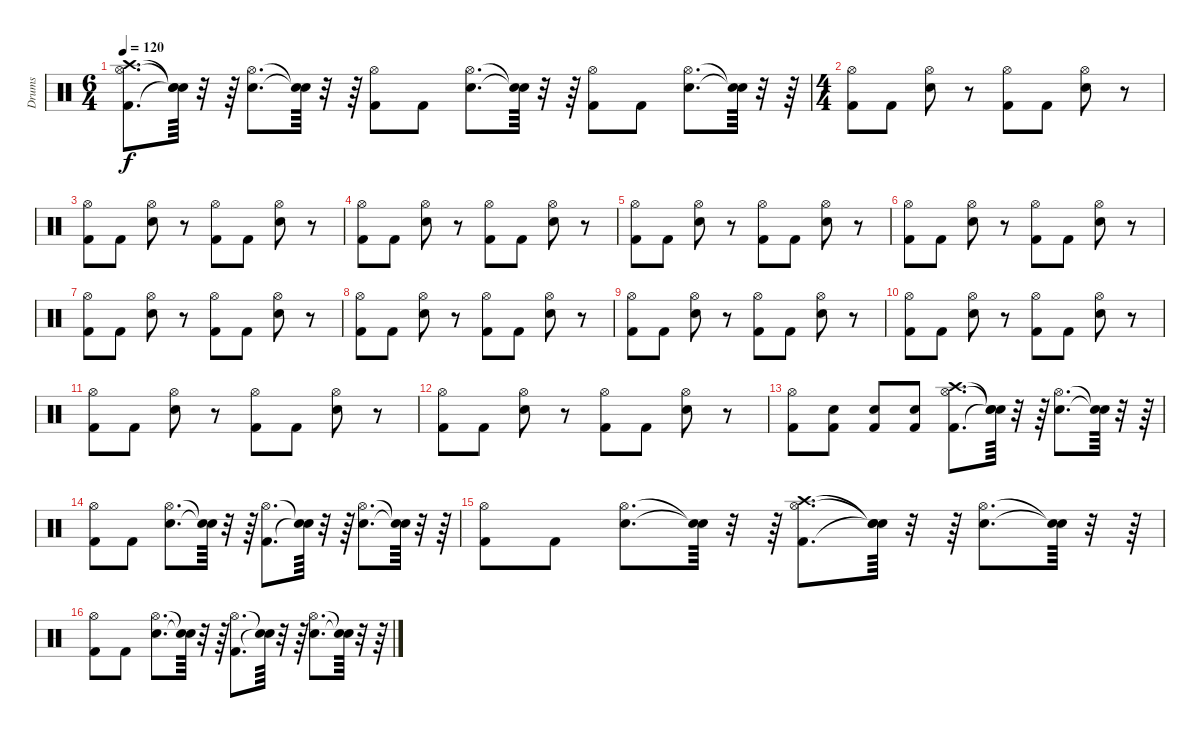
\track ("Drums" "Drums") {instrument percussion}
\staff {score}
\articulation defaults
\ts (6 4)
\tempo 120
\clef neutral
\ks c
("Kick (hit) 2" "Hi-Hat (open)" "Crash high (hit)").8{d dy f} ("Snare (hit)"{t} "Snare (hit)"{t} "Snare (hit)"{t}).64 r.32 r.64 ("Snare (hit) 2" "Hi-Hat (open)").8{d} ("Snare (hit)"{t} "Snare (hit)"{t}).64 r.32 r.64 ("Kick (hit) 2" "Hi-Hat (open)").8 "Kick (hit) 2".8 ("Snare (hit) 2" "Hi-Hat (open)").8{d} ("Snare (hit)"{t} "Snare (hit)"{t}).64 r.32 r.64 ("Kick (hit) 2" "Hi-Hat (open)").8 "Kick (hit) 2".8 ("Snare (hit) 2" "Hi-Hat (open)").8{d} ("Snare (hit)"{t} "Snare (hit)"{t}).64 r.32 r.64 |
\ts (4 4)
("Kick (hit) 2" "Hi-Hat (open)").8 "Kick (hit) 2".8 ("Snare (hit) 2" "Hi-Hat (open)").8 r.8 ("Kick (hit) 2" "Hi-Hat (open)").8 "Kick (hit) 2".8 ("Snare (hit) 2" "Hi-Hat (open)").8 r.8 |
("Kick (hit) 2" "Hi-Hat (open)").8 "Kick (hit) 2".8 ("Snare (hit) 2" "Hi-Hat (open)").8 r.8 ("Kick (hit) 2" "Hi-Hat (open)").8 "Kick (hit) 2".8 ("Snare (hit) 2" "Hi-Hat (open)").8 r.8 |
("Kick (hit) 2" "Hi-Hat (open)").8 "Kick (hit) 2".8 ("Snare (hit) 2" "Hi-Hat (open)").8 r.8 ("Kick (hit) 2" "Hi-Hat (open)").8 "Kick (hit) 2".8 ("Snare (hit) 2" "Hi-Hat (open)").8 r.8 |
("Kick (hit) 2" "Hi-Hat (open)").8 "Kick (hit) 2".8 ("Snare (hit) 2" "Hi-Hat (open)").8 r.8 ("Kick (hit) 2" "Hi-Hat (open)").8 "Kick (hit) 2".8 ("Snare (hit) 2" "Hi-Hat (open)").8 r.8 |
("Kick (hit) 2" "Hi-Hat (open)").8 "Kick (hit) 2".8 ("Snare (hit) 2" "Hi-Hat (open)").8 r.8 ("Kick (hit) 2" "Hi-Hat (open)").8 "Kick (hit) 2".8 ("Snare (hit) 2" "Hi-Hat (open)").8 r.8 |
("Kick (hit) 2" "Hi-Hat (open)").8 "Kick (hit) 2".8 ("Snare (hit) 2" "Hi-Hat (open)").8 r.8 ("Kick (hit) 2" "Hi-Hat (open)").8 "Kick (hit) 2".8 ("Snare (hit) 2" "Hi-Hat (open)").8 r.8 |
("Kick (hit) 2" "Hi-Hat (open)").8 "Kick (hit) 2".8 ("Snare (hit) 2" "Hi-Hat (open)").8 r.8 ("Kick (hit) 2" "Hi-Hat (open)").8 "Kick (hit) 2".8 ("Snare (hit) 2" "Hi-Hat (open)").8 r.8 |
("Kick (hit) 2" "Hi-Hat (open)").8 "Kick (hit) 2".8 ("Snare (hit) 2" "Hi-Hat (open)").8 r.8 ("Kick (hit) 2" "Hi-Hat (open)").8 "Kick (hit) 2".8 ("Snare (hit) 2" "Hi-Hat (open)").8 r.8 |
("Kick (hit) 2" "Hi-Hat (open)").8 "Kick (hit) 2".8 ("Snare (hit) 2" "Hi-Hat (open)").8 r.8 ("Kick (hit) 2" "Hi-Hat (open)").8 "Kick (hit) 2".8 ("Snare (hit) 2" "Hi-Hat (open)").8 r.8 |
("Kick (hit) 2" "Hi-Hat (open)").8 "Kick (hit) 2".8 ("Snare (hit) 2" "Hi-Hat (open)").8 r.8 ("Kick (hit) 2" "Hi-Hat (open)").8 "Kick (hit) 2".8 ("Snare (hit) 2" "Hi-Hat (open)").8 r.8 |
("Kick (hit) 2" "Hi-Hat (open)").8 "Kick (hit) 2".8 ("Snare (hit) 2" "Hi-Hat (open)").8 r.8 ("Kick (hit) 2" "Hi-Hat (open)").8 "Kick (hit) 2".8 ("Snare (hit) 2" "Hi-Hat (open)").8 r.8 |
("Kick (hit) 2" "Hi-Hat (open)").8 ("Kick (hit) 2" "Snare (hit) 2").8 ("Kick (hit) 2" "Snare (hit) 2").8 ("Kick (hit) 2" "Snare (hit) 2").8 ("Kick (hit) 2" "Hi-Hat (open)" "Crash high (hit)").8{d} ("Snare (hit)"{t} "Snare (hit)"{t} "Snare (hit)"{t}).64 r.32 r.64 ("Snare (hit) 2" "Hi-Hat (open)").8{d} ("Snare (hit)"{t} "Snare (hit)"{t}).64 r.32 r.64 |
("Kick (hit) 2" "Hi-Hat (open)").8 "Kick (hit) 2".8 ("Snare (hit) 2" "Hi-Hat (open)").8{d} ("Snare (hit)"{t} "Snare (hit)"{t}).64 r.32 r.64 ("Kick (hit) 2" "Hi-Hat (open)").8{d} ("Snare (hit)"{t} "Snare (hit)"{t}).64 r.32 r.64 ("Snare (hit) 2" "Hi-Hat (open)").8{d} ("Snare (hit)"{t} "Snare (hit)"{t}).64 r.32 r.64 |
("Kick (hit) 2" "Hi-Hat (open)").8 "Kick (hit) 2".8 ("Snare (hit) 2" "Hi-Hat (open)").8{d} ("Snare (hit)"{t} "Snare (hit)"{t}).64 r.32 r.64 ("Kick (hit) 2" "Hi-Hat (open)" "Crash high (hit)").8{d} ("Snare (hit)"{t} "Snare (hit)"{t} "Snare (hit)"{t}).64 r.32 r.64 ("Snare (hit) 2" "Hi-Hat (open)").8{d} ("Snare (hit)"{t} "Snare (hit)"{t}).64 r.32 r.64 |
("Kick (hit) 2" "Hi-Hat (open)").8 "Kick (hit) 2".8 ("Snare (hit) 2" "Hi-Hat (open)").8{d} ("Snare (hit)"{t} "Snare (hit)"{t}).64 r.32 r.64 ("Kick (hit) 2" "Hi-Hat (open)").8{d} ("Snare (hit)"{t} "Snare (hit)"{t}).64 r.32 r.64 ("Snare (hit) 2" "Hi-Hat (open)").8{d} ("Snare (hit)"{t} "Snare (hit)"{t}).64 r.32 r.64
